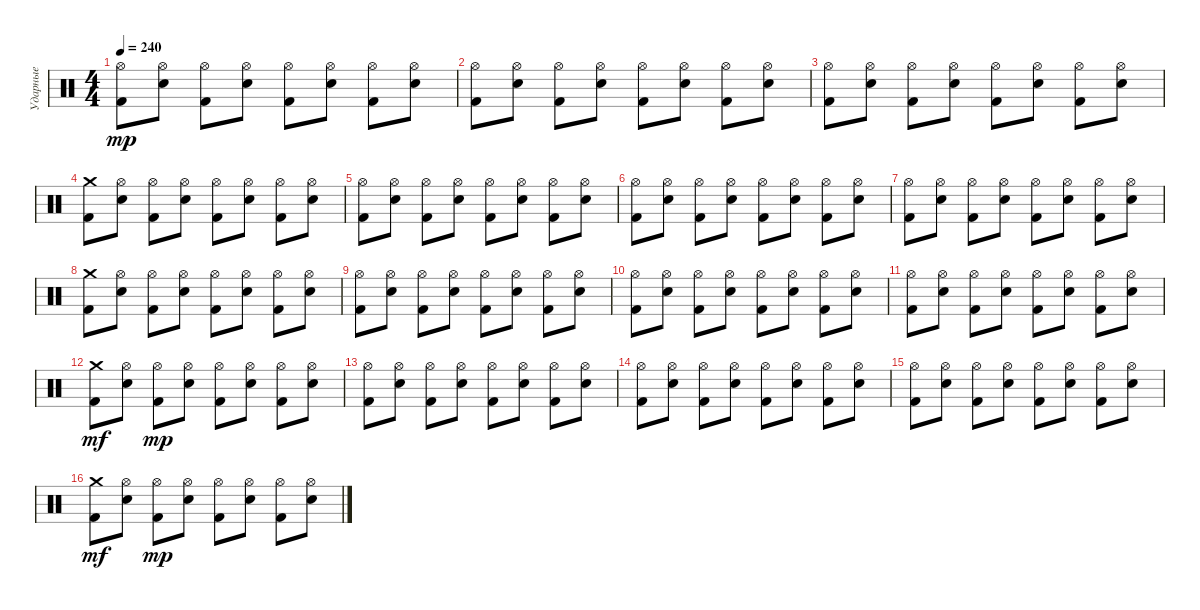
\track ("Ударные" "Ударные") {instrument percussion}
\staff {score}
\articulation defaults
\ts (4 4)
\tempo 240
\clef neutral
\ks c
("Hi-Hat (open)" "Kick (hit) 2").8{dy mp} ("Hi-Hat (open)" "Snare (hit) 2").8 ("Hi-Hat (open)" "Kick (hit) 2").8 ("Hi-Hat (open)" "Snare (hit) 2").8 ("Hi-Hat (open)" "Kick (hit) 2").8 ("Hi-Hat (open)" "Snare (hit) 2").8 ("Hi-Hat (open)" "Kick (hit) 2").8 ("Hi-Hat (open)" "Snare (hit) 2").8 |
("Hi-Hat (open)" "Kick (hit) 2").8 ("Hi-Hat (open)" "Snare (hit) 2").8 ("Hi-Hat (open)" "Kick (hit) 2").8 ("Hi-Hat (open)" "Snare (hit) 2").8 ("Hi-Hat (open)" "Kick (hit) 2").8 ("Hi-Hat (open)" "Snare (hit) 2").8 ("Hi-Hat (open)" "Kick (hit) 2").8 ("Hi-Hat (open)" "Snare (hit) 2").8 |
("Hi-Hat (open)" "Kick (hit) 2").8 ("Hi-Hat (open)" "Snare (hit) 2").8 ("Hi-Hat (open)" "Kick (hit) 2").8 ("Hi-Hat (open)" "Snare (hit) 2").8 ("Hi-Hat (open)" "Kick (hit) 2").8 ("Hi-Hat (open)" "Snare (hit) 2").8 ("Hi-Hat (open)" "Kick (hit) 2").8 ("Hi-Hat (open)" "Snare (hit) 2").8 |
("Crash medium (hit)" "Kick (hit) 2").8 ("Hi-Hat (open)" "Snare (hit) 2").8 ("Hi-Hat (open)" "Kick (hit) 2").8 ("Hi-Hat (open)" "Snare (hit) 2").8 ("Hi-Hat (open)" "Kick (hit) 2").8 ("Hi-Hat (open)" "Snare (hit) 2").8 ("Hi-Hat (open)" "Kick (hit) 2").8 ("Hi-Hat (open)" "Snare (hit) 2").8 |
("Hi-Hat (open)" "Kick (hit) 2").8 ("Hi-Hat (open)" "Snare (hit) 2").8 ("Hi-Hat (open)" "Kick (hit) 2").8 ("Hi-Hat (open)" "Snare (hit) 2").8 ("Hi-Hat (open)" "Kick (hit) 2").8 ("Hi-Hat (open)" "Snare (hit) 2").8 ("Hi-Hat (open)" "Kick (hit) 2").8 ("Hi-Hat (open)" "Snare (hit) 2").8 |
("Hi-Hat (open)" "Kick (hit) 2").8 ("Hi-Hat (open)" "Snare (hit) 2").8 ("Hi-Hat (open)" "Kick (hit) 2").8 ("Hi-Hat (open)" "Snare (hit) 2").8 ("Hi-Hat (open)" "Kick (hit) 2").8 ("Hi-Hat (open)" "Snare (hit) 2").8 ("Hi-Hat (open)" "Kick (hit) 2").8 ("Hi-Hat (open)" "Snare (hit) 2").8 |
("Hi-Hat (open)" "Kick (hit) 2").8 ("Hi-Hat (open)" "Snare (hit) 2").8 ("Hi-Hat (open)" "Kick (hit) 2").8 ("Hi-Hat (open)" "Snare (hit) 2").8 ("Hi-Hat (open)" "Kick (hit) 2").8 ("Hi-Hat (open)" "Snare (hit) 2").8 ("Hi-Hat (open)" "Kick (hit) 2").8 ("Hi-Hat (open)" "Snare (hit) 2").8 |
("Crash medium (hit)" "Kick (hit) 2").8 ("Hi-Hat (open)" "Snare (hit) 2").8 ("Hi-Hat (open)" "Kick (hit) 2").8 ("Hi-Hat (open)" "Snare (hit) 2").8 ("Hi-Hat (open)" "Kick (hit) 2").8 ("Hi-Hat (open)" "Snare (hit) 2").8 ("Hi-Hat (open)" "Kick (hit) 2").8 ("Hi-Hat (open)" "Snare (hit) 2").8 |
("Hi-Hat (open)" "Kick (hit) 2").8 ("Hi-Hat (open)" "Snare (hit) 2").8 ("Hi-Hat (open)" "Kick (hit) 2").8 ("Hi-Hat (open)" "Snare (hit) 2").8 ("Hi-Hat (open)" "Kick (hit) 2").8 ("Hi-Hat (open)" "Snare (hit) 2").8 ("Hi-Hat (open)" "Kick (hit) 2").8 ("Hi-Hat (open)" "Snare (hit) 2").8 |
("Hi-Hat (open)" "Kick (hit) 2").8 ("Hi-Hat (open)" "Snare (hit) 2").8 ("Hi-Hat (open)" "Kick (hit) 2").8 ("Hi-Hat (open)" "Snare (hit) 2").8 ("Hi-Hat (open)" "Kick (hit) 2").8 ("Hi-Hat (open)" "Snare (hit) 2").8 ("Hi-Hat (open)" "Kick (hit) 2").8 ("Hi-Hat (open)" "Snare (hit) 2").8 |
("Hi-Hat (open)" "Kick (hit) 2").8 ("Hi-Hat (open)" "Snare (hit) 2").8 ("Hi-Hat (open)" "Kick (hit) 2").8 ("Hi-Hat (open)" "Snare (hit) 2").8 ("Hi-Hat (open)" "Kick (hit) 2").8 ("Hi-Hat (open)" "Snare (hit) 2").8 ("Hi-Hat (open)" "Kick (hit) 2").8 ("Hi-Hat (open)" "Snare (hit) 2").8 |
("Crash medium (hit)" "Kick (hit) 2").8{dy mf} ("Hi-Hat (open)" "Snare (hit) 2").8 ("Hi-Hat (open)" "Kick (hit) 2").8{dy mp} ("Hi-Hat (open)" "Snare (hit) 2").8 ("Hi-Hat (open)" "Kick (hit) 2").8 ("Hi-Hat (open)" "Snare (hit) 2").8 ("Hi-Hat (open)" "Kick (hit) 2").8 ("Hi-Hat (open)" "Snare (hit) 2").8 |
("Hi-Hat (open)" "Kick (hit) 2").8 ("Hi-Hat (open)" "Snare (hit) 2").8 ("Hi-Hat (open)" "Kick (hit) 2").8 ("Hi-Hat (open)" "Snare (hit) 2").8 ("Hi-Hat (open)" "Kick (hit) 2").8 ("Hi-Hat (open)" "Snare (hit) 2").8 ("Hi-Hat (open)" "Kick (hit) 2").8 ("Hi-Hat (open)" "Snare (hit) 2").8 |
("Hi-Hat (open)" "Kick (hit) 2").8 ("Hi-Hat (open)" "Snare (hit) 2").8 ("Hi-Hat (open)" "Kick (hit) 2").8 ("Hi-Hat (open)" "Snare (hit) 2").8 ("Hi-Hat (open)" "Kick (hit) 2").8 ("Hi-Hat (open)" "Snare (hit) 2").8 ("Hi-Hat (open)" "Kick (hit) 2").8 ("Hi-Hat (open)" "Snare (hit) 2").8 |
("Hi-Hat (open)" "Kick (hit) 2").8 ("Hi-Hat (open)" "Snare (hit) 2").8 ("Hi-Hat (open)" "Kick (hit) 2").8 ("Hi-Hat (open)" "Snare (hit) 2").8 ("Hi-Hat (open)" "Kick (hit) 2").8 ("Hi-Hat (open)" "Snare (hit) 2").8 ("Hi-Hat (open)" "Kick (hit) 2").8 ("Hi-Hat (open)" "Snare (hit) 2").8 |
("Crash medium (hit)" "Kick (hit) 2").8{dy mf} ("Hi-Hat (open)" "Snare (hit) 2").8 ("Hi-Hat (open)" "Kick (hit) 2").8{dy mp} ("Hi-Hat (open)" "Snare (hit) 2").8 ("Hi-Hat (open)" "Kick (hit) 2").8 ("Hi-Hat (open)" "Snare (hit) 2").8 ("Hi-Hat (open)" "Kick (hit) 2").8 ("Hi-Hat (open)" "Snare (hit) 2").8
